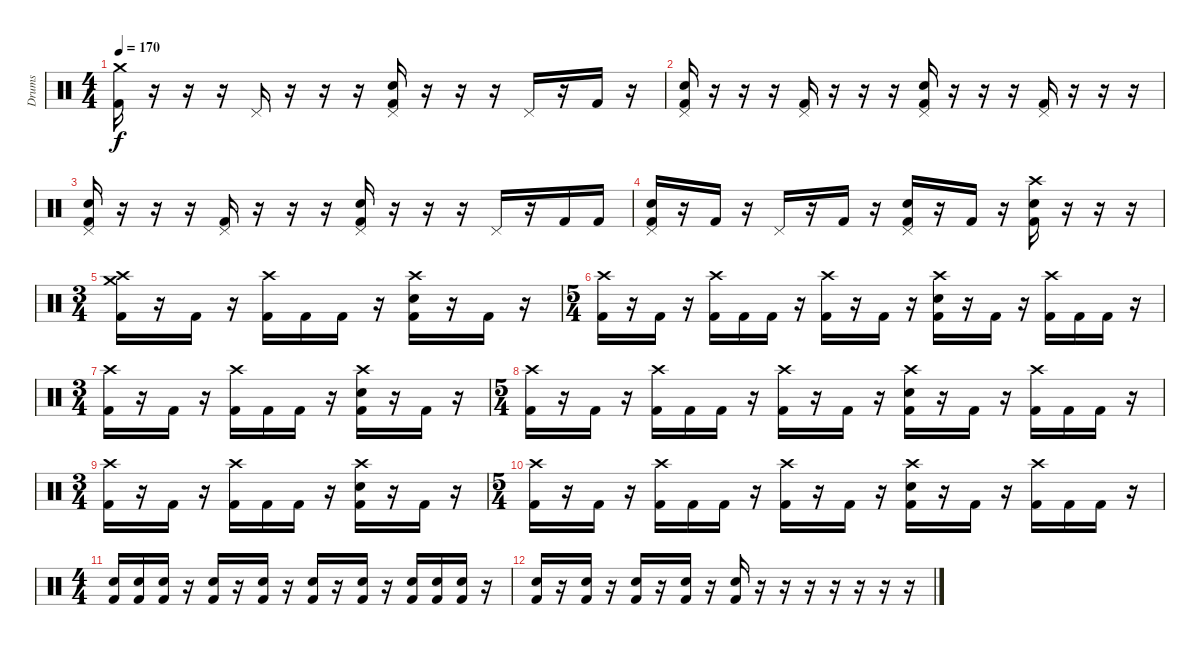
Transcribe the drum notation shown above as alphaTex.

\track ("Drums" "Drums") {instrument percussion}
\staff {score}
\articulation defaults
\ts (4 4)
\tempo 170
\clef neutral
\ks c
("Crash medium (hit)" "Kick (hit) 2").16{dy f} r.16 r.16 r.16 "Pedal Hi-Hat (hit)".16 r.16 r.16 r.16 ("Pedal Hi-Hat (hit)" "Electric Snare (hit)" "Kick (hit) 2").16 r.16 r.16 r.16 "Pedal Hi-Hat (hit)".16 r.16 "Kick (hit) 2".16 r.16 |
("Pedal Hi-Hat (hit)" "Electric Snare (hit)" "Kick (hit) 2").16 r.16 r.16 r.16 ("Pedal Hi-Hat (hit)" "Kick (hit) 2").16 r.16 r.16 r.16 ("Pedal Hi-Hat (hit)" "Electric Snare (hit)" "Kick (hit) 2").16 r.16 r.16 r.16 ("Pedal Hi-Hat (hit)" "Kick (hit) 2").16 r.16 r.16 r.16 |
("Pedal Hi-Hat (hit)" "Electric Snare (hit)" "Kick (hit) 2").16 r.16 r.16 r.16 ("Pedal Hi-Hat (hit)" "Kick (hit) 2").16 r.16 r.16 r.16 ("Pedal Hi-Hat (hit)" "Electric Snare (hit)" "Kick (hit) 2").16 r.16 r.16 r.16 "Pedal Hi-Hat (hit)".16 r.16 "Kick (hit) 2".16 "Kick (hit) 2".16 |
("Pedal Hi-Hat (hit)" "Electric Snare (hit)" "Kick (hit) 2").16 r.16 "Kick (hit) 2".16 r.16 "Pedal Hi-Hat (hit)".16 r.16 "Kick (hit) 2".16 r.16 ("Pedal Hi-Hat (hit)" "Electric Snare (hit)" "Kick (hit) 2").16 r.16 "Kick (hit) 2".16 r.16 ("Crash high (hit)" "Electric Snare (hit)" "Kick (hit) 2").16 r.16 r.16 r.16 |
\ts (3 4)
\section ("" "")
("Crash medium (hit)" "Crash high (hit)" "Kick (hit) 2").16 r.16 "Kick (hit) 2".16 r.16 ("Crash high (hit)" "Kick (hit) 2").16 "Kick (hit) 2".16 "Kick (hit) 2".16 r.16 ("Crash high (hit)" "Electric Snare (hit)" "Kick (hit) 2").16 r.16 "Kick (hit) 2".16 r.16 |
\ts (5 4)
("Crash high (hit)" "Kick (hit) 2").16 r.16 "Kick (hit) 2".16 r.16 ("Crash high (hit)" "Kick (hit) 2").16 "Kick (hit) 2".16 "Kick (hit) 2".16 r.16 ("Crash high (hit)" "Kick (hit) 2").16 r.16 "Kick (hit) 2".16 r.16 ("Crash high (hit)" "Electric Snare (hit)" "Kick (hit) 2").16 r.16 "Kick (hit) 2".16 r.16 ("Crash high (hit)" "Kick (hit) 2").16 "Kick (hit) 2".16 "Kick (hit) 2".16 r.16 |
\ts (3 4)
("Crash high (hit)" "Kick (hit) 2").16 r.16 "Kick (hit) 2".16 r.16 ("Crash high (hit)" "Kick (hit) 2").16 "Kick (hit) 2".16 "Kick (hit) 2".16 r.16 ("Crash high (hit)" "Electric Snare (hit)" "Kick (hit) 2").16 r.16 "Kick (hit) 2".16 r.16 |
\ts (5 4)
("Crash high (hit)" "Kick (hit) 2").16 r.16 "Kick (hit) 2".16 r.16 ("Crash high (hit)" "Kick (hit) 2").16 "Kick (hit) 2".16 "Kick (hit) 2".16 r.16 ("Crash high (hit)" "Kick (hit) 2").16 r.16 "Kick (hit) 2".16 r.16 ("Crash high (hit)" "Electric Snare (hit)" "Kick (hit) 2").16 r.16 "Kick (hit) 2".16 r.16 ("Crash high (hit)" "Kick (hit) 2").16 "Kick (hit) 2".16 "Kick (hit) 2".16 r.16 |
\ts (3 4)
("Crash high (hit)" "Kick (hit) 2").16 r.16 "Kick (hit) 2".16 r.16 ("Crash high (hit)" "Kick (hit) 2").16 "Kick (hit) 2".16 "Kick (hit) 2".16 r.16 ("Crash high (hit)" "Electric Snare (hit)" "Kick (hit) 2").16 r.16 "Kick (hit) 2".16 r.16 |
\ts (5 4)
("Crash high (hit)" "Kick (hit) 2").16 r.16 "Kick (hit) 2".16 r.16 ("Crash high (hit)" "Kick (hit) 2").16 "Kick (hit) 2".16 "Kick (hit) 2".16 r.16 ("Crash high (hit)" "Kick (hit) 2").16 r.16 "Kick (hit) 2".16 r.16 ("Crash high (hit)" "Electric Snare (hit)" "Kick (hit) 2").16 r.16 "Kick (hit) 2".16 r.16 ("Crash high (hit)" "Kick (hit) 2").16 "Kick (hit) 2".16 "Kick (hit) 2".16 r.16 |
\ts (4 4)
("Electric Snare (hit)" "Kick (hit) 2").16 ("Electric Snare (hit)" "Kick (hit) 2").16 ("Electric Snare (hit)" "Kick (hit) 2").16 r.16 ("Electric Snare (hit)" "Kick (hit) 2").16 r.16 ("Electric Snare (hit)" "Kick (hit) 2").16 r.16 ("Electric Snare (hit)" "Kick (hit) 2").16 r.16 ("Electric Snare (hit)" "Kick (hit) 2").16 r.16 ("Electric Snare (hit)" "Kick (hit) 2").16 ("Electric Snare (hit)" "Kick (hit) 2").16 ("Electric Snare (hit)" "Kick (hit) 2").16 r.16 |
("Electric Snare (hit)" "Kick (hit) 2").16 r.16 ("Electric Snare (hit)" "Kick (hit) 2").16 r.16 ("Electric Snare (hit)" "Kick (hit) 2").16 r.16 ("Electric Snare (hit)" "Kick (hit) 2").16 r.16 ("Electric Snare (hit)" "Kick (hit) 2").16 r.16 r.16 r.16 r.16 r.16 r.16 r.16
